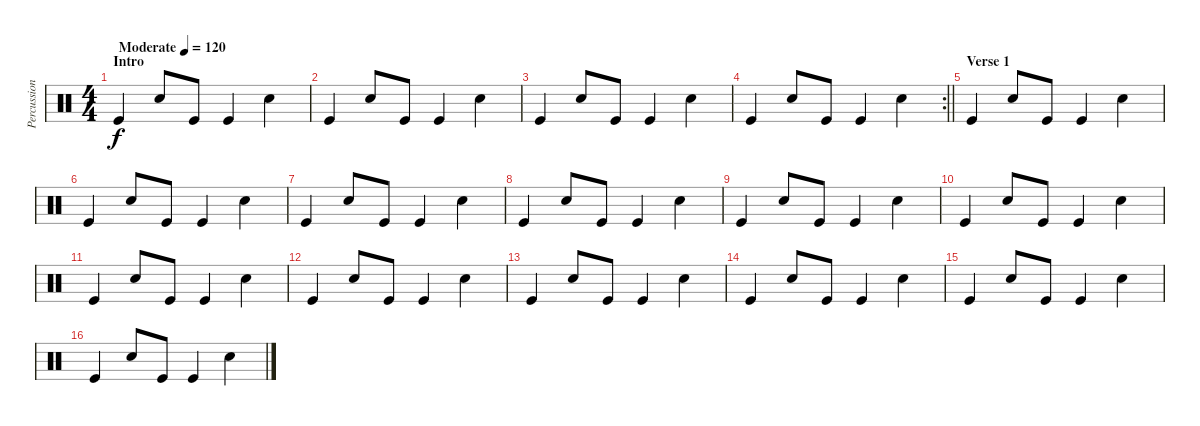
\track ("Percussion" "Percussion") {instrument percussion}
\staff {score}
\articulation defaults
\ts (4 4)
\section ("" "Intro")
\tempo (120 "Moderate")
\clef neutral
\ks c "Kick (hit)".4{dy f} "Electric Snare (hit)".8 "Kick (hit)".8 "Kick (hit)".4 "Electric Snare (hit)".4
|
"Kick (hit)".4 "Electric Snare (hit)".8 "Kick (hit)".8 "Kick (hit)".4 "Electric Snare (hit)".4 |
"Kick (hit)".4 "Electric Snare (hit)".8 "Kick (hit)".8 "Kick (hit)".4 "Electric Snare (hit)".4 |
\rc 2
\barLineRight lightlight "Kick (hit)".4 "Electric Snare (hit)".8 "Kick (hit)".8 "Kick (hit)".4 "Electric Snare (hit)".4
|
\section ("" "Verse 1")
"Kick (hit)".4 "Electric Snare (hit)".8 "Kick (hit)".8 "Kick (hit)".4 "Electric Snare (hit)".4 |
"Kick (hit)".4 "Electric Snare (hit)".8 "Kick (hit)".8 "Kick (hit)".4 "Electric Snare (hit)".4 |
"Kick (hit)".4 "Electric Snare (hit)".8 "Kick (hit)".8 "Kick (hit)".4 "Electric Snare (hit)".4 |
"Kick (hit)".4 "Electric Snare (hit)".8 "Kick (hit)".8 "Kick (hit)".4 "Electric Snare (hit)".4 |
"Kick (hit)".4 "Electric Snare (hit)".8 "Kick (hit)".8 "Kick (hit)".4 "Electric Snare (hit)".4 |
"Kick (hit)".4 "Electric Snare (hit)".8 "Kick (hit)".8 "Kick (hit)".4 "Electric Snare (hit)".4 |
"Kick (hit)".4 "Electric Snare (hit)".8 "Kick (hit)".8 "Kick (hit)".4 "Electric Snare (hit)".4 |
"Kick (hit)".4 "Electric Snare (hit)".8 "Kick (hit)".8 "Kick (hit)".4 "Electric Snare (hit)".4 |
"Kick (hit)".4 "Electric Snare (hit)".8 "Kick (hit)".8 "Kick (hit)".4 "Electric Snare (hit)".4 |
"Kick (hit)".4 "Electric Snare (hit)".8 "Kick (hit)".8 "Kick (hit)".4 "Electric Snare (hit)".4 |
"Kick (hit)".4 "Electric Snare (hit)".8 "Kick (hit)".8 "Kick (hit)".4 "Electric Snare (hit)".4 |
"Kick (hit)".4 "Electric Snare (hit)".8 "Kick (hit)".8 "Kick (hit)".4 "Electric Snare (hit)".4
